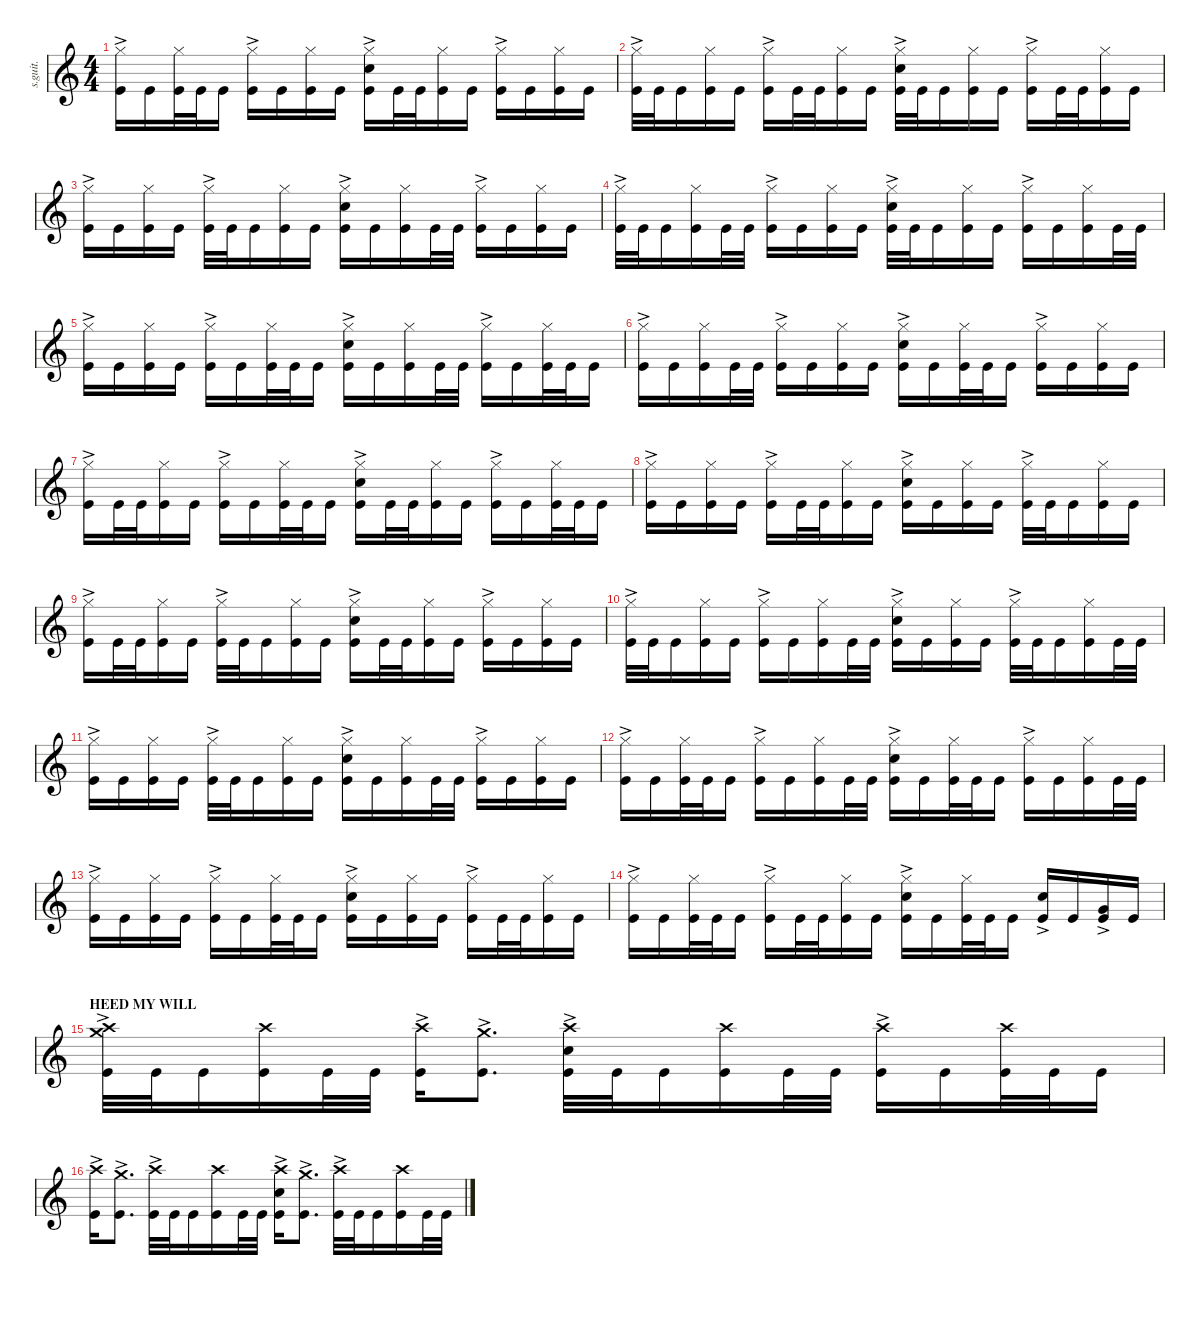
\defaultSystemsLayout 4
\hideDynamics
\bracketExtendMode nobrackets
\track ("Tomas Haake (Drums)" "s.guit.") {instrument percussion}
\staff {score}
\articulation defaults
\ts (4 4)
\tempo (115 hide)
\clef g2
\ks c
("Hi-Hat (closed)"{ac} "Kick (hit)").16{lyrics (0 "") lyrics (1 "") lyrics (2 "") lyrics (3 "") lyrics (4 "") dy f} "Kick (hit)".16{lyrics (0 "") lyrics (1 "") lyrics (2 "") lyrics (3 "") lyrics (4 "")} ("Hi-Hat (closed)" "Kick (hit)").32{lyrics (0 "") lyrics (1 "") lyrics (2 "") lyrics (3 "") lyrics (4 "") dy mp} "Kick (hit)".32{lyrics (0 "") lyrics (1 "") lyrics (2 "") lyrics (3 "") lyrics (4 "") dy mf} "Kick (hit)".16{lyrics (0 "") lyrics (1 "") lyrics (2 "") lyrics (3 "") lyrics (4 "") dy f} ("Hi-Hat (closed)"{ac} "Kick (hit)").16{lyrics (0 "") lyrics (1 "") lyrics (2 "") lyrics (3 "") lyrics (4 "")} "Kick (hit)".16{lyrics (0 "") lyrics (1 "") lyrics (2 "") lyrics (3 "") lyrics (4 "")} ("Hi-Hat (closed)" "Kick (hit)").16{lyrics (0 "") lyrics (1 "") lyrics (2 "") lyrics (3 "") lyrics (4 "") dy mp} "Kick (hit)".16{lyrics (0 "") lyrics (1 "") lyrics (2 "") lyrics (3 "") lyrics (4 "") dy f} ("Hi-Hat (closed)"{ac} "Snare (hit) 2" "Kick (hit)").16{lyrics (0 "") lyrics (1 "") lyrics (2 "") lyrics (3 "") lyrics (4 "")} "Kick (hit)".32{lyrics (0 "") lyrics (1 "") lyrics (2 "") lyrics (3 "") lyrics (4 "")} "Kick (hit)".32{lyrics (0 "") lyrics (1 "") lyrics (2 "") lyrics (3 "") lyrics (4 "") dy mf} ("Hi-Hat (closed)" "Kick (hit)").16{lyrics (0 "") lyrics (1 "") lyrics (2 "") lyrics (3 "") lyrics (4 "") dy mp} "Kick (hit)".16{lyrics (0 "") lyrics (1 "") lyrics (2 "") lyrics (3 "") lyrics (4 "") dy f} ("Hi-Hat (closed)"{ac} "Kick (hit)").16{lyrics (0 "") lyrics (1 "") lyrics (2 "") lyrics (3 "") lyrics (4 "")} "Kick (hit)".16{lyrics (0 "") lyrics (1 "") lyrics (2 "") lyrics (3 "") lyrics (4 "")} ("Hi-Hat (closed)" "Kick (hit)").16{lyrics (0 "") lyrics (1 "") lyrics (2 "") lyrics (3 "") lyrics (4 "") dy mp} "Kick (hit)".16{lyrics (0 "") lyrics (1 "") lyrics (2 "") lyrics (3 "") lyrics (4 "") dy f} |
("Hi-Hat (closed)"{ac} "Kick (hit)").32{lyrics (0 "") lyrics (1 "") lyrics (2 "") lyrics (3 "") lyrics (4 "")} "Kick (hit)".32{lyrics (0 "") lyrics (1 "") lyrics (2 "") lyrics (3 "") lyrics (4 "") dy mf} "Kick (hit)".16{lyrics (0 "") lyrics (1 "") lyrics (2 "") lyrics (3 "") lyrics (4 "") dy f} ("Hi-Hat (closed)" "Kick (hit)").16{lyrics (0 "") lyrics (1 "") lyrics (2 "") lyrics (3 "") lyrics (4 "") dy mp} "Kick (hit)".16{lyrics (0 "") lyrics (1 "") lyrics (2 "") lyrics (3 "") lyrics (4 "") dy f} ("Hi-Hat (closed)"{ac} "Kick (hit)").16{lyrics (0 "") lyrics (1 "") lyrics (2 "") lyrics (3 "") lyrics (4 "")} "Kick (hit)".32{lyrics (0 "") lyrics (1 "") lyrics (2 "") lyrics (3 "") lyrics (4 "")} "Kick (hit)".32{lyrics (0 "") lyrics (1 "") lyrics (2 "") lyrics (3 "") lyrics (4 "") dy mf} ("Hi-Hat (closed)" "Kick (hit)").16{lyrics (0 "") lyrics (1 "") lyrics (2 "") lyrics (3 "") lyrics (4 "") dy mp} "Kick (hit)".16{lyrics (0 "") lyrics (1 "") lyrics (2 "") lyrics (3 "") lyrics (4 "") dy f} ("Hi-Hat (closed)"{ac} "Snare (hit) 2" "Kick (hit)").32{lyrics (0 "") lyrics (1 "") lyrics (2 "") lyrics (3 "") lyrics (4 "")} "Kick (hit)".32{lyrics (0 "") lyrics (1 "") lyrics (2 "") lyrics (3 "") lyrics (4 "") dy mf} "Kick (hit)".16{lyrics (0 "") lyrics (1 "") lyrics (2 "") lyrics (3 "") lyrics (4 "") dy f} ("Hi-Hat (closed)" "Kick (hit)").16{lyrics (0 "") lyrics (1 "") lyrics (2 "") lyrics (3 "") lyrics (4 "") dy mp} "Kick (hit)".16{lyrics (0 "") lyrics (1 "") lyrics (2 "") lyrics (3 "") lyrics (4 "") dy f} ("Hi-Hat (closed)"{ac} "Kick (hit)").16{lyrics (0 "") lyrics (1 "") lyrics (2 "") lyrics (3 "") lyrics (4 "")} "Kick (hit)".32{lyrics (0 "") lyrics (1 "") lyrics (2 "") lyrics (3 "") lyrics (4 "")} "Kick (hit)".32{lyrics (0 "") lyrics (1 "") lyrics (2 "") lyrics (3 "") lyrics (4 "") dy mf} ("Hi-Hat (closed)" "Kick (hit)").16{lyrics (0 "") lyrics (1 "") lyrics (2 "") lyrics (3 "") lyrics (4 "") dy mp} "Kick (hit)".16{lyrics (0 "") lyrics (1 "") lyrics (2 "") lyrics (3 "") lyrics (4 "") dy f} |
("Hi-Hat (closed)"{ac} "Kick (hit)").16{lyrics (0 "") lyrics (1 "") lyrics (2 "") lyrics (3 "") lyrics (4 "")} "Kick (hit)".16{lyrics (0 "") lyrics (1 "") lyrics (2 "") lyrics (3 "") lyrics (4 "")} ("Hi-Hat (closed)" "Kick (hit)").16{lyrics (0 "") lyrics (1 "") lyrics (2 "") lyrics (3 "") lyrics (4 "") dy mp} "Kick (hit)".16{lyrics (0 "") lyrics (1 "") lyrics (2 "") lyrics (3 "") lyrics (4 "") dy f} ("Hi-Hat (closed)"{ac} "Kick (hit)").32{lyrics (0 "") lyrics (1 "") lyrics (2 "") lyrics (3 "") lyrics (4 "")} "Kick (hit)".32{lyrics (0 "") lyrics (1 "") lyrics (2 "") lyrics (3 "") lyrics (4 "") dy mf} "Kick (hit)".16{lyrics (0 "") lyrics (1 "") lyrics (2 "") lyrics (3 "") lyrics (4 "") dy f} ("Hi-Hat (closed)" "Kick (hit)").16{lyrics (0 "") lyrics (1 "") lyrics (2 "") lyrics (3 "") lyrics (4 "") dy mp} "Kick (hit)".16{lyrics (0 "") lyrics (1 "") lyrics (2 "") lyrics (3 "") lyrics (4 "") dy f} ("Hi-Hat (closed)"{ac} "Snare (hit) 2" "Kick (hit)").16{lyrics (0 "") lyrics (1 "") lyrics (2 "") lyrics (3 "") lyrics (4 "")} "Kick (hit)".16{lyrics (0 "") lyrics (1 "") lyrics (2 "") lyrics (3 "") lyrics (4 "")} ("Hi-Hat (closed)" "Kick (hit)").16{lyrics (0 "") lyrics (1 "") lyrics (2 "") lyrics (3 "") lyrics (4 "") dy mp} "Kick (hit)".32{lyrics (0 "") lyrics (1 "") lyrics (2 "") lyrics (3 "") lyrics (4 "") dy f} "Kick (hit)".32{lyrics (0 "") lyrics (1 "") lyrics (2 "") lyrics (3 "") lyrics (4 "") dy mf} ("Hi-Hat (closed)"{ac} "Kick (hit)").16{lyrics (0 "") lyrics (1 "") lyrics (2 "") lyrics (3 "") lyrics (4 "") dy f} "Kick (hit)".16{lyrics (0 "") lyrics (1 "") lyrics (2 "") lyrics (3 "") lyrics (4 "")} ("Hi-Hat (closed)" "Kick (hit)").16{lyrics (0 "") lyrics (1 "") lyrics (2 "") lyrics (3 "") lyrics (4 "") dy mp} "Kick (hit)".16{lyrics (0 "") lyrics (1 "") lyrics (2 "") lyrics (3 "") lyrics (4 "") dy f} |
("Hi-Hat (closed)"{ac} "Kick (hit)").32{lyrics (0 "") lyrics (1 "") lyrics (2 "") lyrics (3 "") lyrics (4 "")} "Kick (hit)".32{lyrics (0 "") lyrics (1 "") lyrics (2 "") lyrics (3 "") lyrics (4 "") dy mf} "Kick (hit)".16{lyrics (0 "") lyrics (1 "") lyrics (2 "") lyrics (3 "") lyrics (4 "") dy f} ("Hi-Hat (closed)" "Kick (hit)").16{lyrics (0 "") lyrics (1 "") lyrics (2 "") lyrics (3 "") lyrics (4 "") dy mp} "Kick (hit)".32{lyrics (0 "") lyrics (1 "") lyrics (2 "") lyrics (3 "") lyrics (4 "") dy f} "Kick (hit)".32{lyrics (0 "") lyrics (1 "") lyrics (2 "") lyrics (3 "") lyrics (4 "") dy mf} ("Hi-Hat (closed)"{ac} "Kick (hit)").16{lyrics (0 "") lyrics (1 "") lyrics (2 "") lyrics (3 "") lyrics (4 "") dy f} "Kick (hit)".16{lyrics (0 "") lyrics (1 "") lyrics (2 "") lyrics (3 "") lyrics (4 "")} ("Hi-Hat (closed)" "Kick (hit)").16{lyrics (0 "") lyrics (1 "") lyrics (2 "") lyrics (3 "") lyrics (4 "") dy mp} "Kick (hit)".16{lyrics (0 "") lyrics (1 "") lyrics (2 "") lyrics (3 "") lyrics (4 "") dy f} ("Hi-Hat (closed)"{ac} "Snare (hit) 2" "Kick (hit)").32{lyrics (0 "") lyrics (1 "") lyrics (2 "") lyrics (3 "") lyrics (4 "")} "Kick (hit)".32{lyrics (0 "") lyrics (1 "") lyrics (2 "") lyrics (3 "") lyrics (4 "") dy mf} "Kick (hit)".16{lyrics (0 "") lyrics (1 "") lyrics (2 "") lyrics (3 "") lyrics (4 "") dy f} ("Hi-Hat (closed)" "Kick (hit)").16{lyrics (0 "") lyrics (1 "") lyrics (2 "") lyrics (3 "") lyrics (4 "") dy mp} "Kick (hit)".16{lyrics (0 "") lyrics (1 "") lyrics (2 "") lyrics (3 "") lyrics (4 "") dy f} ("Hi-Hat (closed)"{ac} "Kick (hit)").16{lyrics (0 "") lyrics (1 "") lyrics (2 "") lyrics (3 "") lyrics (4 "")} "Kick (hit)".16{lyrics (0 "") lyrics (1 "") lyrics (2 "") lyrics (3 "") lyrics (4 "")} ("Hi-Hat (closed)" "Kick (hit)").16{lyrics (0 "") lyrics (1 "") lyrics (2 "") lyrics (3 "") lyrics (4 "") dy mp} "Kick (hit)".32{lyrics (0 "") lyrics (1 "") lyrics (2 "") lyrics (3 "") lyrics (4 "") dy f} "Kick (hit)".32{lyrics (0 "") lyrics (1 "") lyrics (2 "") lyrics (3 "") lyrics (4 "") dy mf} |
("Hi-Hat (closed)"{ac} "Kick (hit)").16{lyrics (0 "") lyrics (1 "") lyrics (2 "") lyrics (3 "") lyrics (4 "") dy f} "Kick (hit)".16{lyrics (0 "") lyrics (1 "") lyrics (2 "") lyrics (3 "") lyrics (4 "")} ("Hi-Hat (closed)" "Kick (hit)").16{lyrics (0 "") lyrics (1 "") lyrics (2 "") lyrics (3 "") lyrics (4 "") dy mp} "Kick (hit)".16{lyrics (0 "") lyrics (1 "") lyrics (2 "") lyrics (3 "") lyrics (4 "") dy f} ("Hi-Hat (closed)"{ac} "Kick (hit)").16{lyrics (0 "") lyrics (1 "") lyrics (2 "") lyrics (3 "") lyrics (4 "")} "Kick (hit)".16{lyrics (0 "") lyrics (1 "") lyrics (2 "") lyrics (3 "") lyrics (4 "")} ("Hi-Hat (closed)" "Kick (hit)").32{lyrics (0 "") lyrics (1 "") lyrics (2 "") lyrics (3 "") lyrics (4 "") dy mp} "Kick (hit)".32{lyrics (0 "") lyrics (1 "") lyrics (2 "") lyrics (3 "") lyrics (4 "") dy mf} "Kick (hit)".16{lyrics (0 "") lyrics (1 "") lyrics (2 "") lyrics (3 "") lyrics (4 "") dy f} ("Hi-Hat (closed)"{ac} "Snare (hit) 2" "Kick (hit)").16{lyrics (0 "") lyrics (1 "") lyrics (2 "") lyrics (3 "") lyrics (4 "")} "Kick (hit)".16{lyrics (0 "") lyrics (1 "") lyrics (2 "") lyrics (3 "") lyrics (4 "")} ("Hi-Hat (closed)" "Kick (hit)").16{lyrics (0 "") lyrics (1 "") lyrics (2 "") lyrics (3 "") lyrics (4 "") dy mp} "Kick (hit)".32{lyrics (0 "") lyrics (1 "") lyrics (2 "") lyrics (3 "") lyrics (4 "") dy f} "Kick (hit)".32{lyrics (0 "") lyrics (1 "") lyrics (2 "") lyrics (3 "") lyrics (4 "") dy mf} ("Hi-Hat (closed)"{ac} "Kick (hit)").16{lyrics (0 "") lyrics (1 "") lyrics (2 "") lyrics (3 "") lyrics (4 "") dy f} "Kick (hit)".16{lyrics (0 "") lyrics (1 "") lyrics (2 "") lyrics (3 "") lyrics (4 "")} ("Hi-Hat (closed)" "Kick (hit)").32{lyrics (0 "") lyrics (1 "") lyrics (2 "") lyrics (3 "") lyrics (4 "") dy mp} "Kick (hit)".32{lyrics (0 "") lyrics (1 "") lyrics (2 "") lyrics (3 "") lyrics (4 "") dy mf} "Kick (hit)".16{lyrics (0 "") lyrics (1 "") lyrics (2 "") lyrics (3 "") lyrics (4 "") dy f} |
("Hi-Hat (closed)"{ac} "Kick (hit)").16{lyrics (0 "") lyrics (1 "") lyrics (2 "") lyrics (3 "") lyrics (4 "")} "Kick (hit)".16{lyrics (0 "") lyrics (1 "") lyrics (2 "") lyrics (3 "") lyrics (4 "")} ("Hi-Hat (closed)" "Kick (hit)").16{lyrics (0 "") lyrics (1 "") lyrics (2 "") lyrics (3 "") lyrics (4 "") dy mp} "Kick (hit)".32{lyrics (0 "") lyrics (1 "") lyrics (2 "") lyrics (3 "") lyrics (4 "") dy f} "Kick (hit)".32{lyrics (0 "") lyrics (1 "") lyrics (2 "") lyrics (3 "") lyrics (4 "") dy mf} ("Hi-Hat (closed)"{ac} "Kick (hit)").16{lyrics (0 "") lyrics (1 "") lyrics (2 "") lyrics (3 "") lyrics (4 "") dy f} "Kick (hit)".16{lyrics (0 "") lyrics (1 "") lyrics (2 "") lyrics (3 "") lyrics (4 "")} ("Hi-Hat (closed)" "Kick (hit)").16{lyrics (0 "") lyrics (1 "") lyrics (2 "") lyrics (3 "") lyrics (4 "") dy mp} "Kick (hit)".16{lyrics (0 "") lyrics (1 "") lyrics (2 "") lyrics (3 "") lyrics (4 "") dy f} ("Hi-Hat (closed)"{ac} "Snare (hit) 2" "Kick (hit)").16{lyrics (0 "") lyrics (1 "") lyrics (2 "") lyrics (3 "") lyrics (4 "")} "Kick (hit)".16{lyrics (0 "") lyrics (1 "") lyrics (2 "") lyrics (3 "") lyrics (4 "")} ("Hi-Hat (closed)" "Kick (hit)").32{lyrics (0 "") lyrics (1 "") lyrics (2 "") lyrics (3 "") lyrics (4 "") dy mp} "Kick (hit)".32{lyrics (0 "") lyrics (1 "") lyrics (2 "") lyrics (3 "") lyrics (4 "") dy mf} "Kick (hit)".16{lyrics (0 "") lyrics (1 "") lyrics (2 "") lyrics (3 "") lyrics (4 "") dy f} ("Hi-Hat (closed)"{ac} "Kick (hit)").16{lyrics (0 "") lyrics (1 "") lyrics (2 "") lyrics (3 "") lyrics (4 "")} "Kick (hit)".16{lyrics (0 "") lyrics (1 "") lyrics (2 "") lyrics (3 "") lyrics (4 "")} ("Hi-Hat (closed)" "Kick (hit)").16{lyrics (0 "") lyrics (1 "") lyrics (2 "") lyrics (3 "") lyrics (4 "") dy mp} "Kick (hit)".16{lyrics (0 "") lyrics (1 "") lyrics (2 "") lyrics (3 "") lyrics (4 "") dy f} |
("Hi-Hat (closed)"{ac} "Kick (hit)").16{lyrics (0 "") lyrics (1 "") lyrics (2 "") lyrics (3 "") lyrics (4 "")} "Kick (hit)".32{lyrics (0 "") lyrics (1 "") lyrics (2 "") lyrics (3 "") lyrics (4 "")} "Kick (hit)".32{lyrics (0 "") lyrics (1 "") lyrics (2 "") lyrics (3 "") lyrics (4 "") dy mf} ("Hi-Hat (closed)" "Kick (hit)").16{lyrics (0 "") lyrics (1 "") lyrics (2 "") lyrics (3 "") lyrics (4 "") dy mp} "Kick (hit)".16{lyrics (0 "") lyrics (1 "") lyrics (2 "") lyrics (3 "") lyrics (4 "") dy f} ("Hi-Hat (closed)"{ac} "Kick (hit)").16{lyrics (0 "") lyrics (1 "") lyrics (2 "") lyrics (3 "") lyrics (4 "")} "Kick (hit)".16{lyrics (0 "") lyrics (1 "") lyrics (2 "") lyrics (3 "") lyrics (4 "")} ("Hi-Hat (closed)" "Kick (hit)").32{lyrics (0 "") lyrics (1 "") lyrics (2 "") lyrics (3 "") lyrics (4 "") dy mp} "Kick (hit)".32{lyrics (0 "") lyrics (1 "") lyrics (2 "") lyrics (3 "") lyrics (4 "") dy mf} "Kick (hit)".16{lyrics (0 "") lyrics (1 "") lyrics (2 "") lyrics (3 "") lyrics (4 "") dy f} ("Hi-Hat (closed)"{ac} "Snare (hit) 2" "Kick (hit)").16{lyrics (0 "") lyrics (1 "") lyrics (2 "") lyrics (3 "") lyrics (4 "")} "Kick (hit)".32{lyrics (0 "") lyrics (1 "") lyrics (2 "") lyrics (3 "") lyrics (4 "")} "Kick (hit)".32{lyrics (0 "") lyrics (1 "") lyrics (2 "") lyrics (3 "") lyrics (4 "") dy mf} ("Hi-Hat (closed)" "Kick (hit)").16{lyrics (0 "") lyrics (1 "") lyrics (2 "") lyrics (3 "") lyrics (4 "") dy mp} "Kick (hit)".16{lyrics (0 "") lyrics (1 "") lyrics (2 "") lyrics (3 "") lyrics (4 "") dy f} ("Hi-Hat (closed)"{ac} "Kick (hit)").16{lyrics (0 "") lyrics (1 "") lyrics (2 "") lyrics (3 "") lyrics (4 "")} "Kick (hit)".16{lyrics (0 "") lyrics (1 "") lyrics (2 "") lyrics (3 "") lyrics (4 "")} ("Hi-Hat (closed)" "Kick (hit)").32{lyrics (0 "") lyrics (1 "") lyrics (2 "") lyrics (3 "") lyrics (4 "") dy mp} "Kick (hit)".32{lyrics (0 "") lyrics (1 "") lyrics (2 "") lyrics (3 "") lyrics (4 "") dy mf} "Kick (hit)".16{lyrics (0 "") lyrics (1 "") lyrics (2 "") lyrics (3 "") lyrics (4 "") dy f} |
("Hi-Hat (closed)"{ac} "Kick (hit)").16{lyrics (0 "") lyrics (1 "") lyrics (2 "") lyrics (3 "") lyrics (4 "")} "Kick (hit)".16{lyrics (0 "") lyrics (1 "") lyrics (2 "") lyrics (3 "") lyrics (4 "")} ("Hi-Hat (closed)" "Kick (hit)").16{lyrics (0 "") lyrics (1 "") lyrics (2 "") lyrics (3 "") lyrics (4 "") dy mp} "Kick (hit)".16{lyrics (0 "") lyrics (1 "") lyrics (2 "") lyrics (3 "") lyrics (4 "") dy f} ("Hi-Hat (closed)"{ac} "Kick (hit)").16{lyrics (0 "") lyrics (1 "") lyrics (2 "") lyrics (3 "") lyrics (4 "")} "Kick (hit)".32{lyrics (0 "") lyrics (1 "") lyrics (2 "") lyrics (3 "") lyrics (4 "")} "Kick (hit)".32{lyrics (0 "") lyrics (1 "") lyrics (2 "") lyrics (3 "") lyrics (4 "") dy mf} ("Hi-Hat (closed)" "Kick (hit)").16{lyrics (0 "") lyrics (1 "") lyrics (2 "") lyrics (3 "") lyrics (4 "") dy mp} "Kick (hit)".16{lyrics (0 "") lyrics (1 "") lyrics (2 "") lyrics (3 "") lyrics (4 "") dy f} ("Hi-Hat (closed)"{ac} "Snare (hit) 2" "Kick (hit)").16{lyrics (0 "") lyrics (1 "") lyrics (2 "") lyrics (3 "") lyrics (4 "")} "Kick (hit)".16{lyrics (0 "") lyrics (1 "") lyrics (2 "") lyrics (3 "") lyrics (4 "")} ("Hi-Hat (closed)" "Kick (hit)").16{lyrics (0 "") lyrics (1 "") lyrics (2 "") lyrics (3 "") lyrics (4 "") dy mp} "Kick (hit)".16{lyrics (0 "") lyrics (1 "") lyrics (2 "") lyrics (3 "") lyrics (4 "") dy f} ("Hi-Hat (closed)"{ac} "Kick (hit)").32{lyrics (0 "") lyrics (1 "") lyrics (2 "") lyrics (3 "") lyrics (4 "")} "Kick (hit)".32{lyrics (0 "") lyrics (1 "") lyrics (2 "") lyrics (3 "") lyrics (4 "") dy mf} "Kick (hit)".16{lyrics (0 "") lyrics (1 "") lyrics (2 "") lyrics (3 "") lyrics (4 "") dy f} ("Hi-Hat (closed)" "Kick (hit)").16{lyrics (0 "") lyrics (1 "") lyrics (2 "") lyrics (3 "") lyrics (4 "") dy mp} "Kick (hit)".16{lyrics (0 "") lyrics (1 "") lyrics (2 "") lyrics (3 "") lyrics (4 "") dy f} |
("Hi-Hat (closed)"{ac} "Kick (hit)").16{lyrics (0 "") lyrics (1 "") lyrics (2 "") lyrics (3 "") lyrics (4 "")} "Kick (hit)".32{lyrics (0 "") lyrics (1 "") lyrics (2 "") lyrics (3 "") lyrics (4 "")} "Kick (hit)".32{lyrics (0 "") lyrics (1 "") lyrics (2 "") lyrics (3 "") lyrics (4 "") dy mf} ("Hi-Hat (closed)" "Kick (hit)").16{lyrics (0 "") lyrics (1 "") lyrics (2 "") lyrics (3 "") lyrics (4 "") dy mp} "Kick (hit)".16{lyrics (0 "") lyrics (1 "") lyrics (2 "") lyrics (3 "") lyrics (4 "") dy f} ("Hi-Hat (closed)"{ac} "Kick (hit)").32{lyrics (0 "") lyrics (1 "") lyrics (2 "") lyrics (3 "") lyrics (4 "")} "Kick (hit)".32{lyrics (0 "") lyrics (1 "") lyrics (2 "") lyrics (3 "") lyrics (4 "") dy mf} "Kick (hit)".16{lyrics (0 "") lyrics (1 "") lyrics (2 "") lyrics (3 "") lyrics (4 "") dy f} ("Hi-Hat (closed)" "Kick (hit)").16{lyrics (0 "") lyrics (1 "") lyrics (2 "") lyrics (3 "") lyrics (4 "") dy mp} "Kick (hit)".16{lyrics (0 "") lyrics (1 "") lyrics (2 "") lyrics (3 "") lyrics (4 "") dy f} ("Hi-Hat (closed)"{ac} "Snare (hit) 2" "Kick (hit)").16{lyrics (0 "") lyrics (1 "") lyrics (2 "") lyrics (3 "") lyrics (4 "")} "Kick (hit)".32{lyrics (0 "") lyrics (1 "") lyrics (2 "") lyrics (3 "") lyrics (4 "")} "Kick (hit)".32{lyrics (0 "") lyrics (1 "") lyrics (2 "") lyrics (3 "") lyrics (4 "") dy mf} ("Hi-Hat (closed)" "Kick (hit)").16{lyrics (0 "") lyrics (1 "") lyrics (2 "") lyrics (3 "") lyrics (4 "") dy mp} "Kick (hit)".16{lyrics (0 "") lyrics (1 "") lyrics (2 "") lyrics (3 "") lyrics (4 "") dy f} ("Hi-Hat (closed)"{ac} "Kick (hit)").16{lyrics (0 "") lyrics (1 "") lyrics (2 "") lyrics (3 "") lyrics (4 "")} "Kick (hit)".16{lyrics (0 "") lyrics (1 "") lyrics (2 "") lyrics (3 "") lyrics (4 "")} ("Hi-Hat (closed)" "Kick (hit)").16{lyrics (0 "") lyrics (1 "") lyrics (2 "") lyrics (3 "") lyrics (4 "") dy mp} "Kick (hit)".16{lyrics (0 "") lyrics (1 "") lyrics (2 "") lyrics (3 "") lyrics (4 "") dy f} |
("Hi-Hat (closed)"{ac} "Kick (hit)").32{lyrics (0 "") lyrics (1 "") lyrics (2 "") lyrics (3 "") lyrics (4 "")} "Kick (hit)".32{lyrics (0 "") lyrics (1 "") lyrics (2 "") lyrics (3 "") lyrics (4 "") dy mf} "Kick (hit)".16{lyrics (0 "") lyrics (1 "") lyrics (2 "") lyrics (3 "") lyrics (4 "") dy f} ("Hi-Hat (closed)" "Kick (hit)").16{lyrics (0 "") lyrics (1 "") lyrics (2 "") lyrics (3 "") lyrics (4 "") dy mp} "Kick (hit)".16{lyrics (0 "") lyrics (1 "") lyrics (2 "") lyrics (3 "") lyrics (4 "") dy f} ("Hi-Hat (closed)"{ac} "Kick (hit)").16{lyrics (0 "") lyrics (1 "") lyrics (2 "") lyrics (3 "") lyrics (4 "")} "Kick (hit)".16{lyrics (0 "") lyrics (1 "") lyrics (2 "") lyrics (3 "") lyrics (4 "")} ("Hi-Hat (closed)" "Kick (hit)").16{lyrics (0 "") lyrics (1 "") lyrics (2 "") lyrics (3 "") lyrics (4 "") dy mp} "Kick (hit)".32{lyrics (0 "") lyrics (1 "") lyrics (2 "") lyrics (3 "") lyrics (4 "") dy f} "Kick (hit)".32{lyrics (0 "") lyrics (1 "") lyrics (2 "") lyrics (3 "") lyrics (4 "") dy mf} ("Hi-Hat (closed)"{ac} "Snare (hit) 2" "Kick (hit)").16{lyrics (0 "") lyrics (1 "") lyrics (2 "") lyrics (3 "") lyrics (4 "") dy f} "Kick (hit)".16{lyrics (0 "") lyrics (1 "") lyrics (2 "") lyrics (3 "") lyrics (4 "")} ("Hi-Hat (closed)" "Kick (hit)").16{lyrics (0 "") lyrics (1 "") lyrics (2 "") lyrics (3 "") lyrics (4 "") dy mp} "Kick (hit)".16{lyrics (0 "") lyrics (1 "") lyrics (2 "") lyrics (3 "") lyrics (4 "") dy f} ("Hi-Hat (closed)"{ac} "Kick (hit)").32{lyrics (0 "") lyrics (1 "") lyrics (2 "") lyrics (3 "") lyrics (4 "")} "Kick (hit)".32{lyrics (0 "") lyrics (1 "") lyrics (2 "") lyrics (3 "") lyrics (4 "") dy mf} "Kick (hit)".16{lyrics (0 "") lyrics (1 "") lyrics (2 "") lyrics (3 "") lyrics (4 "") dy f} ("Hi-Hat (closed)" "Kick (hit)").16{lyrics (0 "") lyrics (1 "") lyrics (2 "") lyrics (3 "") lyrics (4 "") dy mp} "Kick (hit)".32{lyrics (0 "") lyrics (1 "") lyrics (2 "") lyrics (3 "") lyrics (4 "") dy f} "Kick (hit)".32{lyrics (0 "") lyrics (1 "") lyrics (2 "") lyrics (3 "") lyrics (4 "") dy mf} |
("Hi-Hat (closed)"{ac} "Kick (hit)").16{lyrics (0 "") lyrics (1 "") lyrics (2 "") lyrics (3 "") lyrics (4 "") dy f} "Kick (hit)".16{lyrics (0 "") lyrics (1 "") lyrics (2 "") lyrics (3 "") lyrics (4 "")} ("Hi-Hat (closed)" "Kick (hit)").16{lyrics (0 "") lyrics (1 "") lyrics (2 "") lyrics (3 "") lyrics (4 "") dy mp} "Kick (hit)".16{lyrics (0 "") lyrics (1 "") lyrics (2 "") lyrics (3 "") lyrics (4 "") dy f} ("Hi-Hat (closed)"{ac} "Kick (hit)").32{lyrics (0 "") lyrics (1 "") lyrics (2 "") lyrics (3 "") lyrics (4 "")} "Kick (hit)".32{lyrics (0 "") lyrics (1 "") lyrics (2 "") lyrics (3 "") lyrics (4 "") dy mf} "Kick (hit)".16{lyrics (0 "") lyrics (1 "") lyrics (2 "") lyrics (3 "") lyrics (4 "") dy f} ("Hi-Hat (closed)" "Kick (hit)").16{lyrics (0 "") lyrics (1 "") lyrics (2 "") lyrics (3 "") lyrics (4 "") dy mp} "Kick (hit)".16{lyrics (0 "") lyrics (1 "") lyrics (2 "") lyrics (3 "") lyrics (4 "") dy f} ("Hi-Hat (closed)"{ac} "Snare (hit) 2" "Kick (hit)").16{lyrics (0 "") lyrics (1 "") lyrics (2 "") lyrics (3 "") lyrics (4 "")} "Kick (hit)".16{lyrics (0 "") lyrics (1 "") lyrics (2 "") lyrics (3 "") lyrics (4 "")} ("Hi-Hat (closed)" "Kick (hit)").16{lyrics (0 "") lyrics (1 "") lyrics (2 "") lyrics (3 "") lyrics (4 "") dy mp} "Kick (hit)".32{lyrics (0 "") lyrics (1 "") lyrics (2 "") lyrics (3 "") lyrics (4 "") dy f} "Kick (hit)".32{lyrics (0 "") lyrics (1 "") lyrics (2 "") lyrics (3 "") lyrics (4 "") dy mf} ("Hi-Hat (closed)"{ac} "Kick (hit)").16{lyrics (0 "") lyrics (1 "") lyrics (2 "") lyrics (3 "") lyrics (4 "") dy f} "Kick (hit)".16{lyrics (0 "") lyrics (1 "") lyrics (2 "") lyrics (3 "") lyrics (4 "")} ("Hi-Hat (closed)" "Kick (hit)").16{lyrics (0 "") lyrics (1 "") lyrics (2 "") lyrics (3 "") lyrics (4 "") dy mp} "Kick (hit)".16{lyrics (0 "") lyrics (1 "") lyrics (2 "") lyrics (3 "") lyrics (4 "") dy f} |
("Hi-Hat (closed)"{ac} "Kick (hit)").16{lyrics (0 "") lyrics (1 "") lyrics (2 "") lyrics (3 "") lyrics (4 "")} "Kick (hit)".16{lyrics (0 "") lyrics (1 "") lyrics (2 "") lyrics (3 "") lyrics (4 "")} ("Hi-Hat (closed)" "Kick (hit)").32{lyrics (0 "") lyrics (1 "") lyrics (2 "") lyrics (3 "") lyrics (4 "") dy mp} "Kick (hit)".32{lyrics (0 "") lyrics (1 "") lyrics (2 "") lyrics (3 "") lyrics (4 "") dy mf} "Kick (hit)".16{lyrics (0 "") lyrics (1 "") lyrics (2 "") lyrics (3 "") lyrics (4 "") dy f} ("Hi-Hat (closed)"{ac} "Kick (hit)").16{lyrics (0 "") lyrics (1 "") lyrics (2 "") lyrics (3 "") lyrics (4 "")} "Kick (hit)".16{lyrics (0 "") lyrics (1 "") lyrics (2 "") lyrics (3 "") lyrics (4 "")} ("Hi-Hat (closed)" "Kick (hit)").16{lyrics (0 "") lyrics (1 "") lyrics (2 "") lyrics (3 "") lyrics (4 "") dy mp} "Kick (hit)".32{lyrics (0 "") lyrics (1 "") lyrics (2 "") lyrics (3 "") lyrics (4 "") dy f} "Kick (hit)".32{lyrics (0 "") lyrics (1 "") lyrics (2 "") lyrics (3 "") lyrics (4 "") dy mf} ("Hi-Hat (closed)"{ac} "Snare (hit) 2" "Kick (hit)").16{lyrics (0 "") lyrics (1 "") lyrics (2 "") lyrics (3 "") lyrics (4 "") dy f} "Kick (hit)".16{lyrics (0 "") lyrics (1 "") lyrics (2 "") lyrics (3 "") lyrics (4 "")} ("Hi-Hat (closed)" "Kick (hit)").32{lyrics (0 "") lyrics (1 "") lyrics (2 "") lyrics (3 "") lyrics (4 "") dy mp} "Kick (hit)".32{lyrics (0 "") lyrics (1 "") lyrics (2 "") lyrics (3 "") lyrics (4 "") dy mf} "Kick (hit)".16{lyrics (0 "") lyrics (1 "") lyrics (2 "") lyrics (3 "") lyrics (4 "") dy f} ("Hi-Hat (closed)"{ac} "Kick (hit)").16{lyrics (0 "") lyrics (1 "") lyrics (2 "") lyrics (3 "") lyrics (4 "")} "Kick (hit)".16{lyrics (0 "") lyrics (1 "") lyrics (2 "") lyrics (3 "") lyrics (4 "")} ("Hi-Hat (closed)" "Kick (hit)").16{lyrics (0 "") lyrics (1 "") lyrics (2 "") lyrics (3 "") lyrics (4 "") dy mp} "Kick (hit)".32{lyrics (0 "") lyrics (1 "") lyrics (2 "") lyrics (3 "") lyrics (4 "") dy f} "Kick (hit)".32{lyrics (0 "") lyrics (1 "") lyrics (2 "") lyrics (3 "") lyrics (4 "") dy mf} |
("Hi-Hat (closed)"{ac} "Kick (hit)").16{lyrics (0 "") lyrics (1 "") lyrics (2 "") lyrics (3 "") lyrics (4 "") dy f} "Kick (hit)".16{lyrics (0 "") lyrics (1 "") lyrics (2 "") lyrics (3 "") lyrics (4 "")} ("Hi-Hat (closed)" "Kick (hit)").16{lyrics (0 "") lyrics (1 "") lyrics (2 "") lyrics (3 "") lyrics (4 "") dy mp} "Kick (hit)".16{lyrics (0 "") lyrics (1 "") lyrics (2 "") lyrics (3 "") lyrics (4 "") dy f} ("Hi-Hat (closed)"{ac} "Kick (hit)").16{lyrics (0 "") lyrics (1 "") lyrics (2 "") lyrics (3 "") lyrics (4 "")} "Kick (hit)".16{lyrics (0 "") lyrics (1 "") lyrics (2 "") lyrics (3 "") lyrics (4 "")} ("Hi-Hat (closed)" "Kick (hit)").32{lyrics (0 "") lyrics (1 "") lyrics (2 "") lyrics (3 "") lyrics (4 "") dy mp} "Kick (hit)".32{lyrics (0 "") lyrics (1 "") lyrics (2 "") lyrics (3 "") lyrics (4 "") dy mf} "Kick (hit)".16{lyrics (0 "") lyrics (1 "") lyrics (2 "") lyrics (3 "") lyrics (4 "") dy f} ("Hi-Hat (closed)"{ac} "Snare (hit) 2" "Kick (hit)").16{lyrics (0 "") lyrics (1 "") lyrics (2 "") lyrics (3 "") lyrics (4 "")} "Kick (hit)".16{lyrics (0 "") lyrics (1 "") lyrics (2 "") lyrics (3 "") lyrics (4 "")} ("Hi-Hat (closed)" "Kick (hit)").16{lyrics (0 "") lyrics (1 "") lyrics (2 "") lyrics (3 "") lyrics (4 "") dy mp} "Kick (hit)".16{lyrics (0 "") lyrics (1 "") lyrics (2 "") lyrics (3 "") lyrics (4 "") dy f} ("Hi-Hat (closed)"{ac} "Kick (hit)").16{lyrics (0 "") lyrics (1 "") lyrics (2 "") lyrics (3 "") lyrics (4 "")} "Kick (hit)".32{lyrics (0 "") lyrics (1 "") lyrics (2 "") lyrics (3 "") lyrics (4 "")} "Kick (hit)".32{lyrics (0 "") lyrics (1 "") lyrics (2 "") lyrics (3 "") lyrics (4 "") dy mf} ("Hi-Hat (closed)" "Kick (hit)").16{lyrics (0 "") lyrics (1 "") lyrics (2 "") lyrics (3 "") lyrics (4 "") dy mp} "Kick (hit)".16{lyrics (0 "") lyrics (1 "") lyrics (2 "") lyrics (3 "") lyrics (4 "") dy f} |
("Hi-Hat (closed)"{ac} "Kick (hit)").16{lyrics (0 "") lyrics (1 "") lyrics (2 "") lyrics (3 "") lyrics (4 "")} "Kick (hit)".16{lyrics (0 "") lyrics (1 "") lyrics (2 "") lyrics (3 "") lyrics (4 "")} ("Hi-Hat (closed)" "Kick (hit)").32{lyrics (0 "") lyrics (1 "") lyrics (2 "") lyrics (3 "") lyrics (4 "") dy mp} "Kick (hit)".32{lyrics (0 "") lyrics (1 "") lyrics (2 "") lyrics (3 "") lyrics (4 "") dy mf} "Kick (hit)".16{lyrics (0 "") lyrics (1 "") lyrics (2 "") lyrics (3 "") lyrics (4 "") dy f} ("Hi-Hat (closed)"{ac} "Kick (hit)").16{lyrics (0 "") lyrics (1 "") lyrics (2 "") lyrics (3 "") lyrics (4 "")} "Kick (hit)".32{lyrics (0 "") lyrics (1 "") lyrics (2 "") lyrics (3 "") lyrics (4 "")} "Kick (hit)".32{lyrics (0 "") lyrics (1 "") lyrics (2 "") lyrics (3 "") lyrics (4 "") dy mf} ("Hi-Hat (closed)" "Kick (hit)").16{lyrics (0 "") lyrics (1 "") lyrics (2 "") lyrics (3 "") lyrics (4 "") dy mp} "Kick (hit)".16{lyrics (0 "") lyrics (1 "") lyrics (2 "") lyrics (3 "") lyrics (4 "") dy f} ("Hi-Hat (closed)"{ac} "Snare (hit) 2" "Kick (hit)").16{lyrics (0 "") lyrics (1 "") lyrics (2 "") lyrics (3 "") lyrics (4 "")} "Kick (hit)".16{lyrics (0 "") lyrics (1 "") lyrics (2 "") lyrics (3 "") lyrics (4 "")} ("Hi-Hat (closed)" "Kick (hit)").32{lyrics (0 "") lyrics (1 "") lyrics (2 "") lyrics (3 "") lyrics (4 "") dy mp} "Kick (hit)".32{lyrics (0 "") lyrics (1 "") lyrics (2 "") lyrics (3 "") lyrics (4 "") dy mf} "Kick (hit)".16{lyrics (0 "") lyrics (1 "") lyrics (2 "") lyrics (3 "") lyrics (4 "") dy f} ("Snare (hit) 2"{ac} "Kick (hit)").16{lyrics (0 "") lyrics (1 "") lyrics (2 "") lyrics (3 "") lyrics (4 "")} "Kick (hit)".16{lyrics (0 "") lyrics (1 "") lyrics (2 "") lyrics (3 "") lyrics (4 "")} ("Very Low Tom (hit)"{ac} "Kick (hit)").16{lyrics (0 "") lyrics (1 "") lyrics (2 "") lyrics (3 "") lyrics (4 "")} "Kick (hit)".16{lyrics (0 "") lyrics (1 "") lyrics (2 "") lyrics (3 "") lyrics (4 "")} |
\section ("" "HEED MY WILL")
("Crash high (hit)"{ac} "Crash medium (hit)" "Kick (hit)").32{lyrics (0 "") lyrics (1 "") lyrics (2 "") lyrics (3 "") lyrics (4 "")} "Kick (hit)".32{lyrics (0 "") lyrics (1 "") lyrics (2 "") lyrics (3 "") lyrics (4 "") dy mf} "Kick (hit)".16{lyrics (0 "") lyrics (1 "") lyrics (2 "") lyrics (3 "") lyrics (4 "") dy f} ("Crash high (hit)" "Kick (hit)").16{lyrics (0 "") lyrics (1 "") lyrics (2 "") lyrics (3 "") lyrics (4 "") dy mf} "Kick (hit)".32{lyrics (0 "") lyrics (1 "") lyrics (2 "") lyrics (3 "") lyrics (4 "") dy f} "Kick (hit)".32{lyrics (0 "") lyrics (1 "") lyrics (2 "") lyrics (3 "") lyrics (4 "") dy mf} ("Crash high (hit)"{ac} "Kick (hit)").16{lyrics (0 "") lyrics (1 "") lyrics (2 "") lyrics (3 "") lyrics (4 "") dy f} ("Crash medium (hit)"{ac} "Kick (hit)").8{d lyrics (0 "") lyrics (1 "") lyrics (2 "") lyrics (3 "") lyrics (4 "")} ("Crash high (hit)"{ac} "Snare (hit) 2" "Kick (hit)").32{lyrics (0 "") lyrics (1 "") lyrics (2 "") lyrics (3 "") lyrics (4 "")} "Kick (hit)".32{lyrics (0 "") lyrics (1 "") lyrics (2 "") lyrics (3 "") lyrics (4 "") dy mf} "Kick (hit)".16{lyrics (0 "") lyrics (1 "") lyrics (2 "") lyrics (3 "") lyrics (4 "") dy f} ("Crash high (hit)" "Kick (hit)").16{lyrics (0 "") lyrics (1 "") lyrics (2 "") lyrics (3 "") lyrics (4 "") dy mp} "Kick (hit)".32{lyrics (0 "") lyrics (1 "") lyrics (2 "") lyrics (3 "") lyrics (4 "") dy f} "Kick (hit)".32{lyrics (0 "") lyrics (1 "") lyrics (2 "") lyrics (3 "") lyrics (4 "") dy mf} ("Crash high (hit)"{ac} "Kick (hit)").16{lyrics (0 "") lyrics (1 "") lyrics (2 "") lyrics (3 "") lyrics (4 "") dy f} "Kick (hit)".16{lyrics (0 "") lyrics (1 "") lyrics (2 "") lyrics (3 "") lyrics (4 "")} ("Crash high (hit)" "Kick (hit)").32{lyrics (0 "") lyrics (1 "") lyrics (2 "") lyrics (3 "") lyrics (4 "") dy mp} "Kick (hit)".32{lyrics (0 "") lyrics (1 "") lyrics (2 "") lyrics (3 "") lyrics (4 "") dy mf} "Kick (hit)".16{lyrics (0 "") lyrics (1 "") lyrics (2 "") lyrics (3 "") lyrics (4 "") dy f} |
("Crash high (hit)"{ac} "Kick (hit)").16{lyrics (0 "") lyrics (1 "") lyrics (2 "") lyrics (3 "") lyrics (4 "")} ("Crash medium (hit)"{ac} "Kick (hit)").8{d lyrics (0 "") lyrics (1 "") lyrics (2 "") lyrics (3 "") lyrics (4 "")} ("Crash high (hit)"{ac} "Kick (hit)").32{lyrics (0 "") lyrics (1 "") lyrics (2 "") lyrics (3 "") lyrics (4 "")} "Kick (hit)".32{lyrics (0 "") lyrics (1 "") lyrics (2 "") lyrics (3 "") lyrics (4 "") dy mf} "Kick (hit)".16{lyrics (0 "") lyrics (1 "") lyrics (2 "") lyrics (3 "") lyrics (4 "") dy f} ("Crash high (hit)" "Kick (hit)").16{lyrics (0 "") lyrics (1 "") lyrics (2 "") lyrics (3 "") lyrics (4 "") dy mp} "Kick (hit)".32{lyrics (0 "") lyrics (1 "") lyrics (2 "") lyrics (3 "") lyrics (4 "") dy f} "Kick (hit)".32{lyrics (0 "") lyrics (1 "") lyrics (2 "") lyrics (3 "") lyrics (4 "") dy mf} ("Crash high (hit)"{ac} "Snare (hit) 2" "Kick (hit)").16{lyrics (0 "") lyrics (1 "") lyrics (2 "") lyrics (3 "") lyrics (4 "") dy f} ("Crash medium (hit)"{ac} "Kick (hit)").8{d lyrics (0 "") lyrics (1 "") lyrics (2 "") lyrics (3 "") lyrics (4 "")} ("Crash high (hit)"{ac} "Kick (hit)").32{lyrics (0 "") lyrics (1 "") lyrics (2 "") lyrics (3 "") lyrics (4 "")} "Kick (hit)".32{lyrics (0 "") lyrics (1 "") lyrics (2 "") lyrics (3 "") lyrics (4 "") dy mf} "Kick (hit)".16{lyrics (0 "") lyrics (1 "") lyrics (2 "") lyrics (3 "") lyrics (4 "") dy f} ("Crash high (hit)" "Kick (hit)").16{lyrics (0 "") lyrics (1 "") lyrics (2 "") lyrics (3 "") lyrics (4 "") dy mp} "Kick (hit)".32{lyrics (0 "") lyrics (1 "") lyrics (2 "") lyrics (3 "") lyrics (4 "") dy f} "Kick (hit)".32{lyrics (0 "") lyrics (1 "") lyrics (2 "") lyrics (3 "") lyrics (4 "") dy mf}
